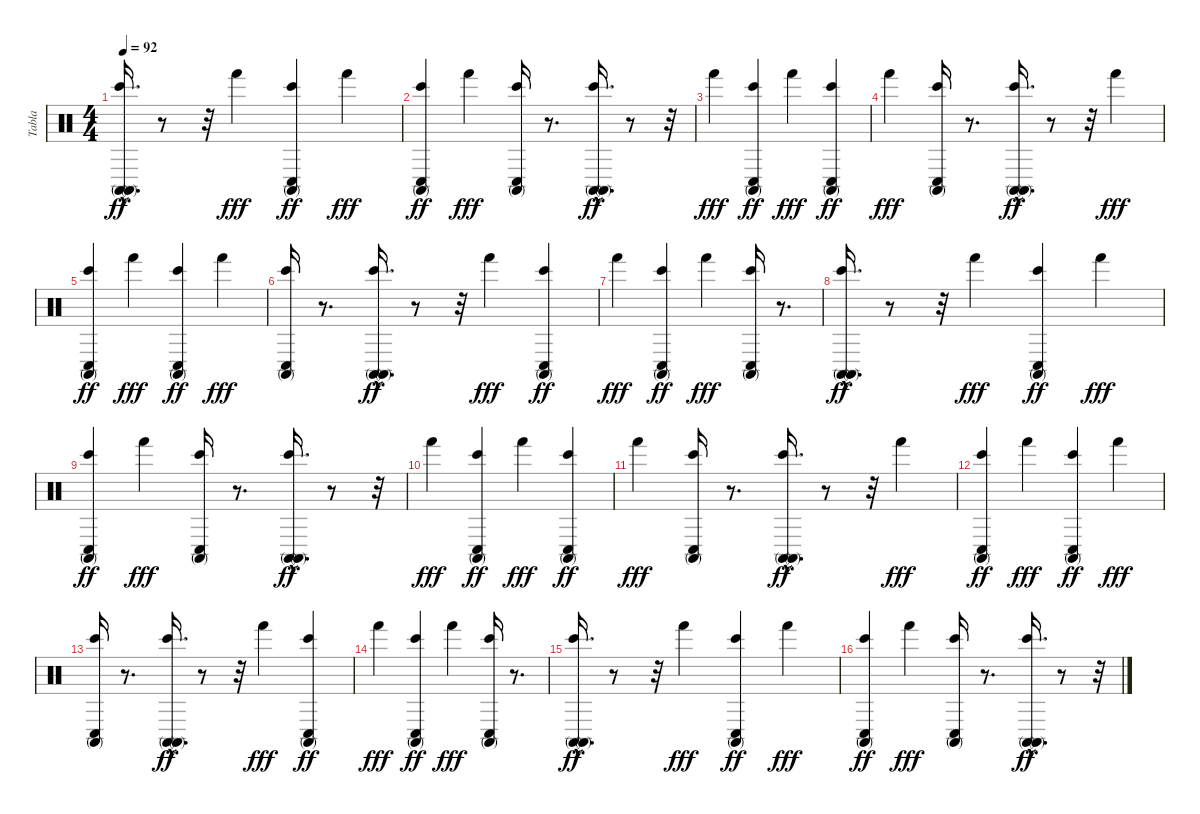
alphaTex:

\track ("Tabla" "Tabla") {instrument percussion}
\staff {score}
\articulation defaults
\ts (4 4)
\tempo 92
\clef neutral
\ks c
("Conga high (mute)" "Conga high (mute)"{hac} "Bongo High (hit)").16{d dy ff} r.8 r.32 "Hand (hit)".4{dy fff} ("Conga low (hit)" "Conga high (mute)" "Bongo High (hit)").4{dy ff} "Hand (hit)".4{dy fff} |
("Conga low (hit)" "Conga high (mute)" "Bongo High (hit)").4{dy ff} "Hand (hit)".4{dy fff} ("Conga high (mute)" "Bongo High (hit)" "Conga low (hit)").16 r.8{d} ("Conga high (mute)" "Conga high (mute)"{hac} "Bongo High (hit)").16{d dy ff} r.8 r.32 |
"Hand (hit)".4{dy fff} ("Conga low (hit)" "Conga high (mute)" "Bongo High (hit)").4{dy ff} "Hand (hit)".4{dy fff} ("Conga low (hit)" "Conga high (mute)" "Bongo High (hit)").4{dy ff} |
"Hand (hit)".4{dy fff} ("Conga high (mute)" "Bongo High (hit)" "Conga low (hit)").16 r.8{d} ("Conga high (mute)" "Conga high (mute)"{hac} "Bongo High (hit)").16{d dy ff} r.8 r.32 "Hand (hit)".4{dy fff} |
("Conga low (hit)" "Conga high (mute)" "Bongo High (hit)").4{dy ff} "Hand (hit)".4{dy fff} ("Conga low (hit)" "Conga high (mute)" "Bongo High (hit)").4{dy ff} "Hand (hit)".4{dy fff} |
("Conga high (mute)" "Bongo High (hit)" "Conga low (hit)").16 r.8{d} ("Conga high (mute)" "Conga high (mute)"{hac} "Bongo High (hit)").16{d dy ff} r.8 r.32 "Hand (hit)".4{dy fff} ("Conga low (hit)" "Conga high (mute)" "Bongo High (hit)").4{dy ff} |
"Hand (hit)".4{dy fff} ("Conga low (hit)" "Conga high (mute)" "Bongo High (hit)").4{dy ff} "Hand (hit)".4{dy fff} ("Conga high (mute)" "Bongo High (hit)" "Conga low (hit)").16 r.8{d} |
("Conga high (mute)" "Conga high (mute)"{hac} "Bongo High (hit)").16{d dy ff} r.8 r.32 "Hand (hit)".4{dy fff} ("Conga low (hit)" "Conga high (mute)" "Bongo High (hit)").4{dy ff} "Hand (hit)".4{dy fff} |
("Conga low (hit)" "Conga high (mute)" "Bongo High (hit)").4{dy ff} "Hand (hit)".4{dy fff} ("Conga high (mute)" "Bongo High (hit)" "Conga low (hit)").16 r.8{d} ("Conga high (mute)" "Conga high (mute)"{hac} "Bongo High (hit)").16{d dy ff} r.8 r.32 |
"Hand (hit)".4{dy fff} ("Conga low (hit)" "Conga high (mute)" "Bongo High (hit)").4{dy ff} "Hand (hit)".4{dy fff} ("Conga low (hit)" "Conga high (mute)" "Bongo High (hit)").4{dy ff} |
"Hand (hit)".4{dy fff} ("Conga high (mute)" "Bongo High (hit)" "Conga low (hit)").16 r.8{d} ("Conga high (mute)" "Conga high (mute)"{hac} "Bongo High (hit)").16{d dy ff} r.8 r.32 "Hand (hit)".4{dy fff} |
("Conga low (hit)" "Conga high (mute)" "Bongo High (hit)").4{dy ff} "Hand (hit)".4{dy fff} ("Conga low (hit)" "Conga high (mute)" "Bongo High (hit)").4{dy ff} "Hand (hit)".4{dy fff} |
("Conga high (mute)" "Bongo High (hit)" "Conga low (hit)").16 r.8{d} ("Conga high (mute)" "Conga high (mute)"{hac} "Bongo High (hit)").16{d dy ff} r.8 r.32 "Hand (hit)".4{dy fff} ("Conga low (hit)" "Conga high (mute)" "Bongo High (hit)").4{dy ff} |
"Hand (hit)".4{dy fff} ("Conga low (hit)" "Conga high (mute)" "Bongo High (hit)").4{dy ff} "Hand (hit)".4{dy fff} ("Conga high (mute)" "Bongo High (hit)" "Conga low (hit)").16 r.8{d} |
("Conga high (mute)" "Conga high (mute)"{hac} "Bongo High (hit)").16{d dy ff} r.8 r.32 "Hand (hit)".4{dy fff} ("Conga low (hit)" "Conga high (mute)" "Bongo High (hit)").4{dy ff} "Hand (hit)".4{dy fff} |
("Conga low (hit)" "Conga high (mute)" "Bongo High (hit)").4{dy ff} "Hand (hit)".4{dy fff} ("Conga high (mute)" "Bongo High (hit)" "Conga low (hit)").16 r.8{d} ("Conga high (mute)" "Conga high (mute)"{hac} "Bongo High (hit)").16{d dy ff} r.8 r.32
